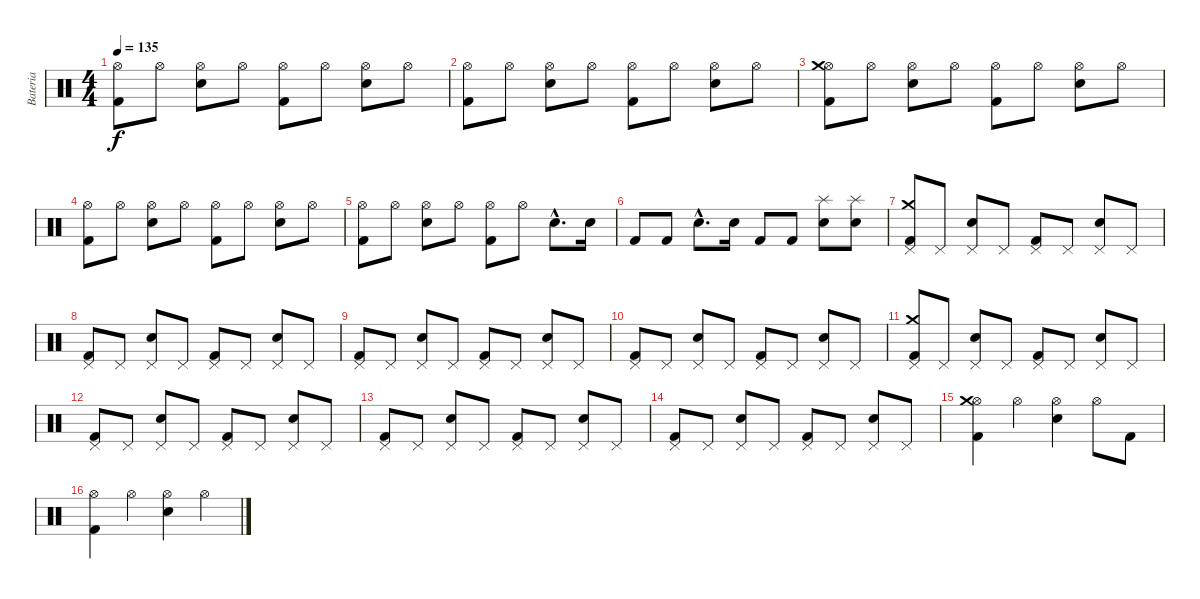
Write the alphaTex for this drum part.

\track ("Bateria" "Bateria") {instrument percussion}
\staff {score}
\articulation defaults
\ts (4 4)
\tempo 135
\clef neutral
\ks c
("Kick (hit) 2" "Hi-Hat (open)").8{dy f} "Hi-Hat (open)".8 ("Electric Snare (hit)" "Hi-Hat (open)").8 "Hi-Hat (open)".8 ("Kick (hit) 2" "Hi-Hat (open)").8 "Hi-Hat (open)".8 ("Electric Snare (hit)" "Hi-Hat (open)").8 "Hi-Hat (open)".8 |
("Kick (hit) 2" "Hi-Hat (open)").8 "Hi-Hat (open)".8 ("Electric Snare (hit)" "Hi-Hat (open)").8 "Hi-Hat (open)".8 ("Kick (hit) 2" "Hi-Hat (open)").8 "Hi-Hat (open)".8 ("Electric Snare (hit)" "Hi-Hat (open)").8 "Hi-Hat (open)".8 |
("Kick (hit) 2" "Hi-Hat (open)" "Crash medium (hit)").8 "Hi-Hat (open)".8 ("Electric Snare (hit)" "Hi-Hat (open)").8 "Hi-Hat (open)".8 ("Kick (hit) 2" "Hi-Hat (open)").8 "Hi-Hat (open)".8 ("Electric Snare (hit)" "Hi-Hat (open)").8 "Hi-Hat (open)".8 |
("Kick (hit) 2" "Hi-Hat (open)").8 "Hi-Hat (open)".8 ("Electric Snare (hit)" "Hi-Hat (open)").8 "Hi-Hat (open)".8 ("Kick (hit) 2" "Hi-Hat (open)").8 "Hi-Hat (open)".8 ("Electric Snare (hit)" "Hi-Hat (open)").8 "Hi-Hat (open)".8 |
("Kick (hit) 2" "Hi-Hat (open)").8 "Hi-Hat (open)".8 ("Electric Snare (hit)" "Hi-Hat (open)").8 "Hi-Hat (open)".8 ("Kick (hit) 2" "Hi-Hat (open)").8 "Hi-Hat (open)".8 "Electric Snare (hit)"{hac}.8{d} "Electric Snare (hit)".16 |
"Kick (hit) 2".8 "Kick (hit) 2".8 "Electric Snare (hit)"{hac}.8{d} "Electric Snare (hit)".16 "Kick (hit) 2".8 "Kick (hit) 2".8 ("Electric Snare (hit)" "Splash (hit)").8 ("Electric Snare (hit)" "Splash (hit)").8 |
("Kick (hit) 2" "Pedal Hi-Hat (hit)" "Crash medium (hit)").8 "Pedal Hi-Hat (hit)".8 ("Electric Snare (hit)" "Pedal Hi-Hat (hit)").8 "Pedal Hi-Hat (hit)".8 ("Kick (hit) 2" "Pedal Hi-Hat (hit)").8 "Pedal Hi-Hat (hit)".8 ("Electric Snare (hit)" "Pedal Hi-Hat (hit)").8 "Pedal Hi-Hat (hit)".8 |
("Kick (hit) 2" "Pedal Hi-Hat (hit)").8 "Pedal Hi-Hat (hit)".8 ("Electric Snare (hit)" "Pedal Hi-Hat (hit)").8 "Pedal Hi-Hat (hit)".8 ("Kick (hit) 2" "Pedal Hi-Hat (hit)").8 "Pedal Hi-Hat (hit)".8 ("Electric Snare (hit)" "Pedal Hi-Hat (hit)").8 "Pedal Hi-Hat (hit)".8 |
("Kick (hit) 2" "Pedal Hi-Hat (hit)").8 "Pedal Hi-Hat (hit)".8 ("Electric Snare (hit)" "Pedal Hi-Hat (hit)").8 "Pedal Hi-Hat (hit)".8 ("Kick (hit) 2" "Pedal Hi-Hat (hit)").8 "Pedal Hi-Hat (hit)".8 ("Electric Snare (hit)" "Pedal Hi-Hat (hit)").8 "Pedal Hi-Hat (hit)".8 |
("Kick (hit) 2" "Pedal Hi-Hat (hit)").8 "Pedal Hi-Hat (hit)".8 ("Electric Snare (hit)" "Pedal Hi-Hat (hit)").8 "Pedal Hi-Hat (hit)".8 ("Kick (hit) 2" "Pedal Hi-Hat (hit)").8 "Pedal Hi-Hat (hit)".8 ("Electric Snare (hit)" "Pedal Hi-Hat (hit)").8 "Pedal Hi-Hat (hit)".8 |
("Kick (hit) 2" "Pedal Hi-Hat (hit)" "Crash medium (hit)").8 "Pedal Hi-Hat (hit)".8 ("Electric Snare (hit)" "Pedal Hi-Hat (hit)").8 "Pedal Hi-Hat (hit)".8 ("Kick (hit) 2" "Pedal Hi-Hat (hit)").8 "Pedal Hi-Hat (hit)".8 ("Electric Snare (hit)" "Pedal Hi-Hat (hit)").8 "Pedal Hi-Hat (hit)".8 |
("Kick (hit) 2" "Pedal Hi-Hat (hit)").8 "Pedal Hi-Hat (hit)".8 ("Electric Snare (hit)" "Pedal Hi-Hat (hit)").8 "Pedal Hi-Hat (hit)".8 ("Kick (hit) 2" "Pedal Hi-Hat (hit)").8 "Pedal Hi-Hat (hit)".8 ("Electric Snare (hit)" "Pedal Hi-Hat (hit)").8 "Pedal Hi-Hat (hit)".8 |
("Kick (hit) 2" "Pedal Hi-Hat (hit)").8 "Pedal Hi-Hat (hit)".8 ("Electric Snare (hit)" "Pedal Hi-Hat (hit)").8 "Pedal Hi-Hat (hit)".8 ("Kick (hit) 2" "Pedal Hi-Hat (hit)").8 "Pedal Hi-Hat (hit)".8 ("Electric Snare (hit)" "Pedal Hi-Hat (hit)").8 "Pedal Hi-Hat (hit)".8 |
("Kick (hit) 2" "Pedal Hi-Hat (hit)").8 "Pedal Hi-Hat (hit)".8 ("Electric Snare (hit)" "Pedal Hi-Hat (hit)").8 "Pedal Hi-Hat (hit)".8 ("Kick (hit) 2" "Pedal Hi-Hat (hit)").8 "Pedal Hi-Hat (hit)".8 ("Electric Snare (hit)" "Pedal Hi-Hat (hit)").8 "Pedal Hi-Hat (hit)".8 |
("Kick (hit) 2" "Hi-Hat (open)" "Crash medium (hit)").4 "Hi-Hat (open)".4 ("Electric Snare (hit)" "Hi-Hat (open)").4 "Hi-Hat (open)".8 "Kick (hit) 2".8 |
("Kick (hit) 2" "Hi-Hat (open)").4 "Hi-Hat (open)".4 ("Electric Snare (hit)" "Hi-Hat (open)").4 "Hi-Hat (open)".4
